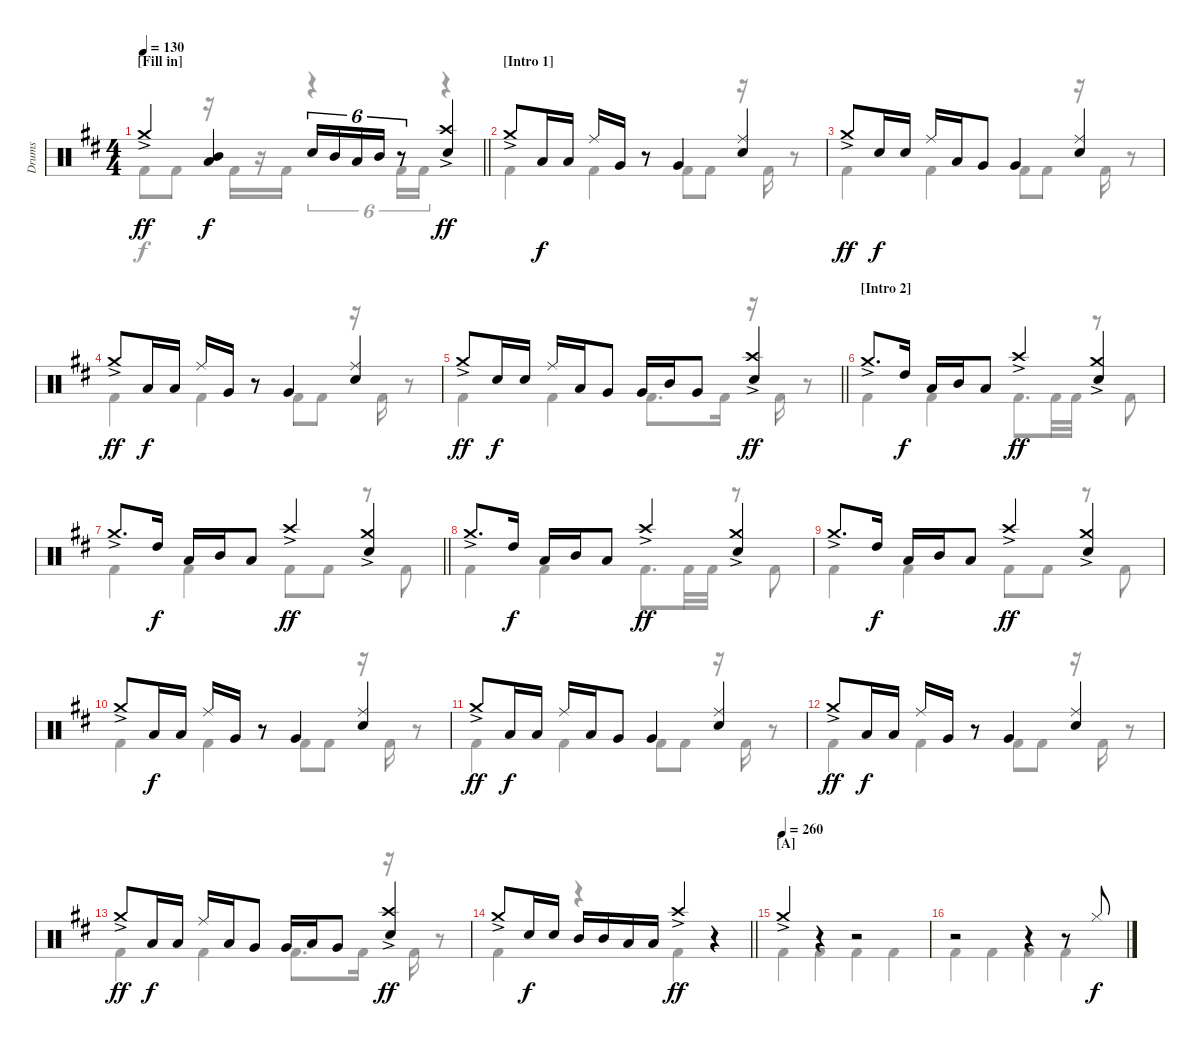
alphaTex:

\track ("Drums" "Drums") {instrument percussion}
\staff {score}
\articulation defaults
\voice
\ts (4 4)
\section ("" "[Fill in]")
\tempo 130
\clef neutral
\barLineRight lightlight
\ks bminor "Crash medium (hit)"{ac}.4{dy ff}
("Mid Tom (hit)" "Low Tom (hit)").4{dy f} "Snare (hit) 2".16{tu (6 4)} "Mid Tom (hit)".16{tu (6 4) beam merge} "Low Tom (hit)".16{tu (6 4) beam merge} "Mid Tom (hit)".16{tu (6 4)} r.8{tu (6 4)} ("Crash high (hit)"{ac} "Snare (hit) 2").4{dy ff} |
\section ("" "[Intro 1]")
"Crash medium (hit)"{ac}.8 "Low Tom (hit)".16{dy f} "Low Tom (hit)".16 "Ride (middle)".16 "Very Low Tom (hit)".16 r.8 "Very Low Tom (hit)".4 ("Ride (middle)" "Snare (hit) 2").4 |
"Crash medium (hit)"{ac}.8{dy ff} "Snare (hit) 2".16{dy f} "Snare (hit) 2".16 "Ride (middle)".16 "Low Tom (hit)".16 "Very Low Tom (hit)".8 "Very Low Tom (hit)".4 ("Ride (middle)" "Snare (hit) 2").4 |
"Crash medium (hit)"{ac}.8{dy ff} "Low Tom (hit)".16{dy f} "Low Tom (hit)".16 "Ride (middle)".16 "Very Low Tom (hit)".16 r.8 "Very Low Tom (hit)".4 ("Ride (middle)" "Snare (hit) 2").4 |
\barLineRight lightlight "Crash medium (hit)"{ac}.8{dy ff} "Snare (hit) 2".16{dy f} "Snare (hit) 2".16 "Ride (middle)".16 "Low Tom (hit)".16 "Very Low Tom (hit)".8 "Very Low Tom (hit)".16 "Mid Tom (hit)".16 "Very Low Tom (hit)".8
("Crash high (hit)"{ac} "Snare (hit) 2").4{dy ff} |
\section ("" "[Intro 2]")
"Crash medium (hit)"{ac}.8{d} "High Tom (hit)".16{dy f} "Low Tom (hit)".16 "Mid Tom (hit)".16 "Low Tom (hit)".8 "Crash high (hit)"{ac}.4{dy ff} ("Crash medium (hit)"{ac} "Snare (hit) 2").4 |
\barLineRight lightlight "Crash medium (hit)"{ac}.8{d} "High Tom (hit)".16{dy f} "Low Tom (hit)".16 "Mid Tom (hit)".16 "Low Tom (hit)".8 "Crash high (hit)"{ac}.4{dy ff}
("Crash medium (hit)"{ac} "Snare (hit) 2").4 |
\section ("" "")
"Crash medium (hit)"{ac}.8{d} "High Tom (hit)".16{dy f} "Low Tom (hit)".16 "Mid Tom (hit)".16 "Low Tom (hit)".8 "Crash high (hit)"{ac}.4{dy ff} ("Crash medium (hit)"{ac} "Snare (hit) 2").4 |
"Crash medium (hit)"{ac}.8{d} "High Tom (hit)".16{dy f} "Low Tom (hit)".16 "Mid Tom (hit)".16 "Low Tom (hit)".8 "Crash high (hit)"{ac}.4{dy ff} ("Crash medium (hit)"{ac} "Snare (hit) 2").4 |
"Crash medium (hit)"{ac}.8 "Low Tom (hit)".16{dy f} "Low Tom (hit)".16 "Ride (middle)".16 "Very Low Tom (hit)".16 r.8 "Very Low Tom (hit)".4 ("Ride (middle)" "Snare (hit) 2").4 |
"Crash medium (hit)"{ac}.8{dy ff} "Low Tom (hit)".16{dy f} "Low Tom (hit)".16 "Ride (middle)".16 "Low Tom (hit)".16 "Very Low Tom (hit)".8 "Very Low Tom (hit)".4 ("Ride (middle)" "Snare (hit) 2").4 |
"Crash medium (hit)"{ac}.8{dy ff} "Low Tom (hit)".16{dy f} "Low Tom (hit)".16 "Ride (middle)".16 "Very Low Tom (hit)".16 r.8 "Very Low Tom (hit)".4 ("Ride (middle)" "Snare (hit) 2").4 |
"Crash medium (hit)"{ac}.8{dy ff} "Low Tom (hit)".16{dy f} "Low Tom (hit)".16 "Ride (middle)".16 "Low Tom (hit)".16 "Very Low Tom (hit)".8 "Very Low Tom (hit)".16 "Low Tom (hit)".16 "Very Low Tom (hit)".8 ("Crash high (hit)"{ac} "Snare (hit) 2").4{dy ff} |
\barLineRight lightlight "Crash medium (hit)"{ac}.8 "Snare (hit) 2".16{dy f} "Snare (hit) 2".16 "Mid Tom (hit)".16 "Mid Tom (hit)".16 "Low Tom (hit)".16 "Low Tom (hit)".16 "Crash high (hit)"{ac}.4{dy ff}
r.4 |
\section ("" "[A]")
\tempo (260)
"Crash medium (hit)"{ac}.4 r.4 r.2 |
r.2 r.4 r.8 "Hi-Hat (closed)".8{dy f}
\voice
\clef neutral
\ottava regular
\simile none
\barLineRight lightlight
\ks bminor "Kick (hit) 2".8{dy f} "Kick (hit) 2".8
r.16 "Kick (hit) 2".16 r.16 "Kick (hit) 2".16 r.4{tu (6 4)} "Kick (hit) 2".16{tu (6 4)} "Kick (hit) 2".16{tu (6 4)} r.4 |
"Kick (hit) 2".4 "Kick (hit) 2".4 "Kick (hit) 2".8 "Kick (hit) 2".8 r.16 "Kick (hit) 2".16 r.8 |
"Kick (hit) 2".4 "Kick (hit) 2".4 "Kick (hit) 2".8 "Kick (hit) 2".8 r.16 "Kick (hit) 2".16 r.8 |
"Kick (hit) 2".4 "Kick (hit) 2".4 "Kick (hit) 2".8 "Kick (hit) 2".8 r.16 "Kick (hit) 2".16 r.8 |
\barLineRight lightlight "Kick (hit) 2".4 "Kick (hit) 2".4 "Kick (hit) 2".8{d} "Kick (hit) 2".16
r.16 "Kick (hit) 2".16 r.8 |
"Kick (hit) 2".4 "Kick (hit) 2".4 "Kick (hit) 2".8{d} "Kick (hit) 2".32 "Kick (hit) 2".32 r.8 "Kick (hit) 2".8 |
\barLineRight lightlight "Kick (hit) 2".4 "Kick (hit) 2".4 "Kick (hit) 2".8 "Kick (hit) 2".8
r.8 "Kick (hit) 2".8 |
"Kick (hit) 2".4 "Kick (hit) 2".4 "Kick (hit) 2".8{d} "Kick (hit) 2".32 "Kick (hit) 2".32 r.8 "Kick (hit) 2".8 |
"Kick (hit) 2".4 "Kick (hit) 2".4 "Kick (hit) 2".8 "Kick (hit) 2".8 r.8 "Kick (hit) 2".8 |
"Kick (hit) 2".4 "Kick (hit) 2".4 "Kick (hit) 2".8 "Kick (hit) 2".8 r.16 "Kick (hit) 2".16 r.8 |
"Kick (hit) 2".4 "Kick (hit) 2".4 "Kick (hit) 2".8 "Kick (hit) 2".8 r.16 "Kick (hit) 2".16 r.8 |
"Kick (hit) 2".4 "Kick (hit) 2".4 "Kick (hit) 2".8 "Kick (hit) 2".8 r.16 "Kick (hit) 2".16 r.8 |
"Kick (hit) 2".4 "Kick (hit) 2".4 "Kick (hit) 2".8{d} "Kick (hit) 2".16 r.16 "Kick (hit) 2".16 r.8 |
\barLineRight lightlight "Kick (hit) 2".4
r.4 "Kick (hit) 2".4 r.4 |
"Kick (hit) 2".4 "Kick (hit) 2".4 "Kick (hit) 2".4 "Kick (hit) 2".4 |
"Kick (hit) 2".4 "Kick (hit) 2".4 "Kick (hit) 2".4 "Kick (hit) 2".4
